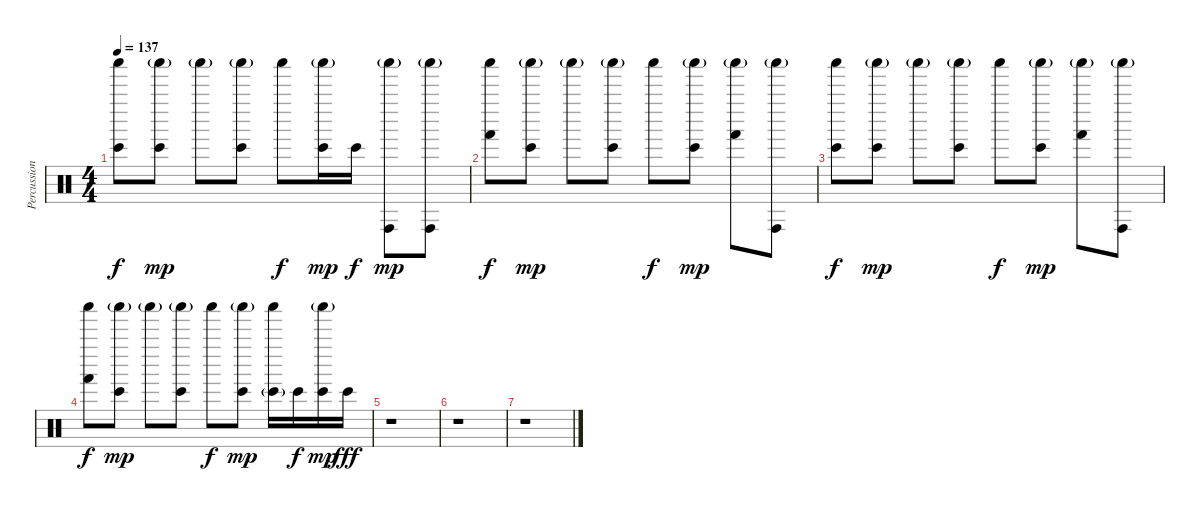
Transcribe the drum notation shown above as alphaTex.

\track ("Percussions" "Percussion") {instrument percussion}
\staff {score}
\articulation defaults
\ts (4 4)
\tempo 137
\clef neutral
\ks c
("Bongo High (hit)" "Shaker (hit)").8{dy f} ("Bongo High (hit)" "Shaker (hit)"{g}).8{dy mp} "Shaker (hit)"{g}.8 ("Bongo High (hit)" "Shaker (hit)"{g}).8 "Shaker (hit)".8{dy f} ("Bongo High (hit)" "Shaker (hit)"{g}).16{dy mp} "Bongo High (hit)".16{dy f} ("Conga high (hit)" "Shaker (hit)"{g}).8{dy mp} ("Conga high (hit)" "Shaker (hit)"{g}).8 |
("Hand (hit)" "Shaker (hit)").8{dy f} ("Bongo High (hit)" "Shaker (hit)"{g}).8{dy mp} "Shaker (hit)"{g}.8 ("Bongo High (hit)" "Shaker (hit)"{g}).8 "Shaker (hit)".8{dy f} ("Bongo High (hit)" "Shaker (hit)"{g}).8{dy mp} ("Hand (hit)" "Shaker (hit)"{g}).8 ("Conga high (hit)" "Shaker (hit)"{g}).8 |
("Bongo High (hit)" "Shaker (hit)").8{dy f} ("Bongo High (hit)" "Shaker (hit)"{g}).8{dy mp} "Shaker (hit)"{g}.8 ("Bongo High (hit)" "Shaker (hit)"{g}).8 "Shaker (hit)".8{dy f} ("Bongo High (hit)" "Shaker (hit)"{g}).8{dy mp} ("Hand (hit)" "Shaker (hit)"{g}).8 ("Conga high (hit)" "Shaker (hit)"{g}).8 |
("Hand (hit)" "Shaker (hit)").8{dy f} ("Bongo High (hit)" "Shaker (hit)"{g}).8{dy mp} "Shaker (hit)"{g}.8 ("Bongo High (hit)" "Shaker (hit)"{g}).8 "Shaker (hit)".8{dy f} ("Bongo High (hit)" "Shaker (hit)"{g}).8{dy mp} ("Bongo High (hit)"{g} "Shaker (hit)").16 "Bongo High (hit)".16{dy f} ("Bongo High (hit)" "Shaker (hit)"{g}).16{dy mp} "Bongo High (hit)".16{dy fff} |
r.1 |
r.1 |
r.1
